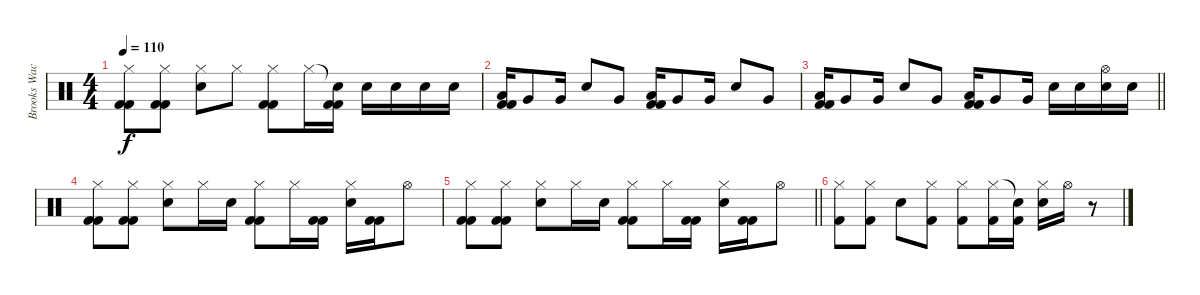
\track ("Brooks Wackerman" "Brooks Wac") {instrument percussion}
\staff {score}
\articulation defaults
\ts (4 4)
\tempo 110
\clef neutral
\ks c
("Hi-Hat (closed)" "Kick (hit) 2" "Kick (hit) 2").8{dy f} ("Hi-Hat (closed)" "Kick (hit) 2" "Kick (hit) 2").8 ("Hi-Hat (closed)" "Snare (hit) 2").8 "Hi-Hat (closed)".8 ("Hi-Hat (closed)" "Kick (hit) 2" "Kick (hit) 2").8 "Hi-Hat (closed)".16 ("Snare (hit)"{t} "Kick (hit) 2" "Kick (hit) 2").16 "Snare (hit) 2".16 "Snare (hit) 2".16 "Snare (hit) 2".16 "Snare (hit) 2".16 |
("Low Tom (hit)" "Kick (hit) 2" "Kick (hit) 2").16 "Very Low Tom (hit)".8 "Very Low Tom (hit)".16 "Snare (hit) 2".8 "Very Low Tom (hit)".8 ("Low Tom (hit)" "Kick (hit) 2" "Kick (hit) 2").16 "Very Low Tom (hit)".8 "Very Low Tom (hit)".16 "Snare (hit) 2".8 "Very Low Tom (hit)".8 |
\barLineRight lightlight
("Low Tom (hit)" "Kick (hit) 2" "Kick (hit) 2").16 "Very Low Tom (hit)".8 "Very Low Tom (hit)".16 "Snare (hit) 2".8 "Very Low Tom (hit)".8 ("Low Tom (hit)" "Kick (hit) 2" "Kick (hit) 2").16 "Very Low Tom (hit)".8 "Very Low Tom (hit)".16 "Snare (hit) 2".16 "Snare (hit) 2".16 ("Hi-Hat (open)" "Snare (hit) 2").16 "Snare (hit) 2".16 |
("Hi-Hat (closed)" "Kick (hit) 2" "Kick (hit) 2").8 ("Hi-Hat (closed)" "Kick (hit) 2" "Kick (hit) 2").8 ("Hi-Hat (closed)" "Snare (hit) 2").8 "Hi-Hat (closed)".16 "Snare (hit) 2".16 ("Hi-Hat (closed)" "Kick (hit) 2" "Kick (hit) 2").8 "Hi-Hat (closed)".16 ("Kick (hit) 2" "Kick (hit) 2").16 ("Hi-Hat (closed)" "Snare (hit) 2").16 ("Kick (hit) 2" "Kick (hit) 2").16 "Hi-Hat (open)".8 |
\barLineRight lightlight
("Hi-Hat (closed)" "Kick (hit) 2" "Kick (hit) 2").8 ("Hi-Hat (closed)" "Kick (hit) 2" "Kick (hit) 2").8 ("Hi-Hat (closed)" "Snare (hit) 2").8 "Hi-Hat (closed)".16 "Snare (hit) 2".16 ("Hi-Hat (closed)" "Kick (hit) 2" "Kick (hit) 2").8 "Hi-Hat (closed)".16 ("Kick (hit) 2" "Kick (hit) 2").16 ("Hi-Hat (closed)" "Snare (hit) 2").16 ("Kick (hit) 2" "Kick (hit) 2").16 "Hi-Hat (open)".8 |
("Hi-Hat (closed)" "Kick (hit) 2").8 ("Hi-Hat (closed)" "Kick (hit) 2").8 "Snare (hit) 2".8 ("Hi-Hat (closed)" "Kick (hit) 2").8 ("Hi-Hat (closed)" "Kick (hit) 2").8 ("Hi-Hat (closed)" "Kick (hit) 2").16 ("Snare (hit)"{t} "Kick (hit) 2").16 ("Hi-Hat (closed)" "Snare (hit) 2").16 "Hi-Hat (open)".16 r.8
